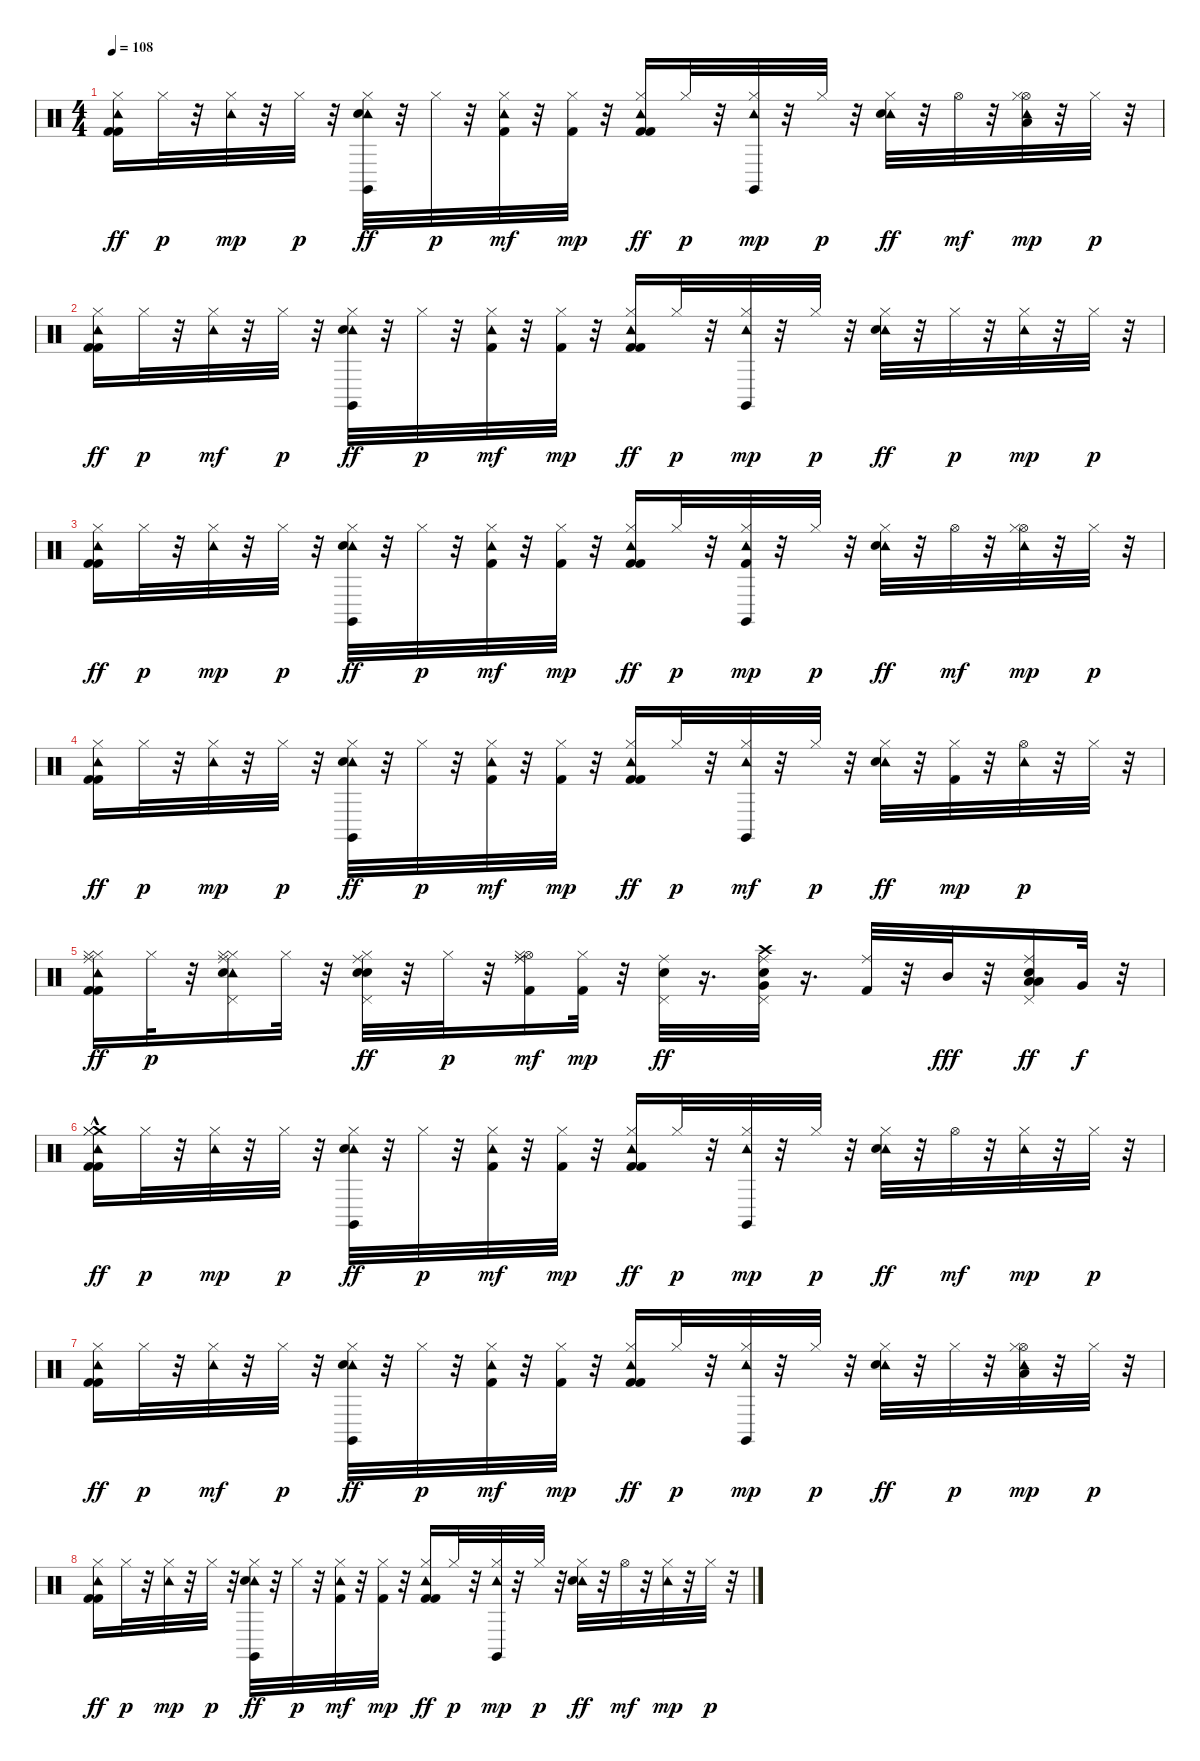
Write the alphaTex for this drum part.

\track "" {instrument percussion}
\staff {score}
\articulation defaults
\ts (4 4)
\tempo 108
\clef neutral
\ks c
("Tambourine (hit)" "Kick (hit) 2" "Hi-Hat (closed)" "Kick (hit) 2").16{dy ff} "Hi-Hat (closed)".32{dy p} r.32 ("Hi-Hat (closed)" "Tambourine (hit)").32{dy mp} r.32 "Hi-Hat (closed)".32{dy p} r.32 ("Tambourine (hit)" "Claves (hit)" "Hi-Hat (closed)" "Snare (hit) 2").32{dy ff} r.32 "Hi-Hat (closed)".32{dy p} r.32 ("Kick (hit) 2" "Tambourine (hit)" "Hi-Hat (closed)").32{dy mf} r.32 ("Hi-Hat (closed)" "Kick (hit) 2").32{dy mp} r.32 ("Kick (hit) 2" "Tambourine (hit)" "Hi-Hat (closed)" "Kick (hit) 2").16{dy ff} "Hi-Hat (closed)".32{dy p} r.32 ("Tambourine (hit)" "Claves (hit)" "Hi-Hat (closed)").32{dy mp} r.32 "Hi-Hat (closed)".32{dy p} r.32 ("Tambourine (hit)" "Hi-Hat (closed)" "Snare (hit) 2").32{dy ff} r.32 "Hi-Hat (open)".32{dy mf} r.32 ("Tambourine (hit)" "Hi-Hat (open)" "Low Tom (hit)" "Hi-Hat (closed)").32{dy mp} r.32 "Hi-Hat (closed)".32{dy p} r.32 |
("Kick (hit) 2" "Tambourine (hit)" "Hi-Hat (closed)" "Kick (hit) 2").16{dy ff} "Hi-Hat (closed)".32{dy p} r.32 ("Tambourine (hit)" "Hi-Hat (closed)").32{dy mf} r.32 "Hi-Hat (closed)".32{dy p} r.32 ("Tambourine (hit)" "Claves (hit)" "Hi-Hat (closed)" "Snare (hit) 2").32{dy ff} r.32 "Hi-Hat (closed)".32{dy p} r.32 ("Tambourine (hit)" "Kick (hit) 2" "Hi-Hat (closed)").32{dy mf} r.32 ("Hi-Hat (closed)" "Kick (hit) 2").32{dy mp} r.32 ("Tambourine (hit)" "Kick (hit) 2" "Hi-Hat (closed)" "Kick (hit) 2").16{dy ff} "Hi-Hat (closed)".32{dy p} r.32 ("Tambourine (hit)" "Claves (hit)" "Hi-Hat (closed)").32{dy mp} r.32 "Hi-Hat (closed)".32{dy p} r.32 ("Tambourine (hit)" "Hi-Hat (closed)" "Snare (hit) 2").32{dy ff} r.32 "Hi-Hat (closed)".32{dy p} r.32 ("Tambourine (hit)" "Hi-Hat (closed)").32{dy mp} r.32 "Hi-Hat (closed)".32{dy p} r.32 |
("Tambourine (hit)" "Kick (hit) 2" "Hi-Hat (closed)" "Kick (hit) 2").16{dy ff} "Hi-Hat (closed)".32{dy p} r.32 ("Hi-Hat (closed)" "Tambourine (hit)").32{dy mp} r.32 "Hi-Hat (closed)".32{dy p} r.32 ("Tambourine (hit)" "Claves (hit)" "Hi-Hat (closed)" "Snare (hit) 2").32{dy ff} r.32 "Hi-Hat (closed)".32{dy p} r.32 ("Kick (hit) 2" "Tambourine (hit)" "Hi-Hat (closed)").32{dy mf} r.32 ("Hi-Hat (closed)" "Kick (hit) 2").32{dy mp} r.32 ("Tambourine (hit)" "Kick (hit) 2" "Hi-Hat (closed)" "Kick (hit) 2").16{dy ff} "Hi-Hat (closed)".32{dy p} r.32 ("Tambourine (hit)" "Claves (hit)" "Kick (hit) 2" "Hi-Hat (closed)").32{dy mp} r.32 "Hi-Hat (closed)".32{dy p} r.32 ("Tambourine (hit)" "Hi-Hat (closed)" "Snare (hit) 2").32{dy ff} r.32 "Hi-Hat (open)".32{dy mf} r.32 ("Tambourine (hit)" "Hi-Hat (open)" "Hi-Hat (closed)").32{dy mp} r.32 "Hi-Hat (closed)".32{dy p} r.32 |
("Tambourine (hit)" "Kick (hit) 2" "Hi-Hat (closed)" "Kick (hit) 2").16{dy ff} "Hi-Hat (closed)".32{dy p} r.32 ("Tambourine (hit)" "Hi-Hat (closed)").32{dy mp} r.32 "Hi-Hat (closed)".32{dy p} r.32 ("Tambourine (hit)" "Claves (hit)" "Hi-Hat (closed)" "Snare (hit) 2").32{dy ff} r.32 "Hi-Hat (closed)".32{dy p} r.32 ("Kick (hit) 2" "Tambourine (hit)" "Hi-Hat (closed)").32{dy mf} r.32 ("Hi-Hat (closed)" "Kick (hit) 2").32{dy mp} r.32 ("Tambourine (hit)" "Kick (hit) 2" "Hi-Hat (closed)" "Kick (hit) 2").16{dy ff} "Hi-Hat (closed)".32{dy p} r.32 ("Tambourine (hit)" "Claves (hit)" "Hi-Hat (closed)").32{dy mf} r.32 "Hi-Hat (closed)".32{dy p} r.32 ("Tambourine (hit)" "Hi-Hat (closed)" "Snare (hit) 2").32{dy ff} r.32 ("Hi-Hat (closed)" "Kick (hit) 2").32{dy mp} r.32 ("Tambourine (hit)" "Hi-Hat (open)").32{dy p} r.32 "Hi-Hat (closed)".32 r.32 |
("Tambourine (hit)" "Kick (hit) 2" "Hi-Hat (closed)" "Ride (middle)" "Kick (hit) 2" "Hi-Hat (closed)").16{dy ff} "Hi-Hat (closed)".32{dy p} r.32 ("Hi-Hat (closed)" "Tambourine (hit)" "Hi-Hat (closed)" "Pedal Hi-Hat (hit)" "Ride (middle)" "Snare (hit) 2").16 "Hi-Hat (closed)".32 r.32 ("Electric Snare (hit)" "Pedal Hi-Hat (hit)" "Ride (middle)" "Hi-Hat (closed)" "Snare (hit) 2").32{dy ff} r.32 "Hi-Hat (closed)".32{dy p} r.32 ("Ride (middle)" "Hi-Hat (open)" "Ride (middle)" "Kick (hit) 2" "Hi-Hat (closed)").16{dy mf} ("Hi-Hat (closed)" "Kick (hit) 2").32{dy mp} r.32 ("Pedal Hi-Hat (hit)" "Ride (middle)" "Snare (hit) 2").32{dy ff} r.16{d} ("Very Low Tom (hit)" "Crash high (hit)" "Pedal Hi-Hat (hit)" "Ride (middle)" "Snare (hit) 2").32 r.16{d} ("Ride (middle)" "Kick (hit) 2").32 r.32 "Mid Tom (hit)".32{dy fff} r.32 ("Low Tom (hit)" "Pedal Hi-Hat (hit)" "Low Tom (hit)" "Ride (middle)" "Snare (hit) 2").16{dy ff} "Very Low Tom (hit)".32{dy f} r.32 |
("Kick (hit) 2" "Crash medium (hit)"{hac} "Hi-Hat (closed)" "Tambourine (hit)" "Hi-Hat (closed)" "Kick (hit) 2").16{dy ff} "Hi-Hat (closed)".32{dy p} r.32 ("Hi-Hat (closed)" "Tambourine (hit)").32{dy mp} r.32 "Hi-Hat (closed)".32{dy p} r.32 ("Tambourine (hit)" "Claves (hit)" "Hi-Hat (closed)" "Snare (hit) 2").32{dy ff} r.32 "Hi-Hat (closed)".32{dy p} r.32 ("Tambourine (hit)" "Kick (hit) 2" "Hi-Hat (closed)").32{dy mf} r.32 ("Hi-Hat (closed)" "Kick (hit) 2").32{dy mp} r.32 ("Kick (hit) 2" "Tambourine (hit)" "Hi-Hat (closed)" "Kick (hit) 2").16{dy ff} "Hi-Hat (closed)".32{dy p} r.32 ("Tambourine (hit)" "Claves (hit)" "Hi-Hat (closed)").32{dy mp} r.32 "Hi-Hat (closed)".32{dy p} r.32 ("Tambourine (hit)" "Hi-Hat (closed)" "Snare (hit) 2").32{dy ff} r.32 "Hi-Hat (open)".32{dy mf} r.32 ("Tambourine (hit)" "Hi-Hat (closed)").32{dy mp} r.32 "Hi-Hat (closed)".32{dy p} r.32 |
("Tambourine (hit)" "Kick (hit) 2" "Hi-Hat (closed)" "Kick (hit) 2").16{dy ff} "Hi-Hat (closed)".32{dy p} r.32 ("Tambourine (hit)" "Hi-Hat (closed)").32{dy mf} r.32 "Hi-Hat (closed)".32{dy p} r.32 ("Tambourine (hit)" "Claves (hit)" "Hi-Hat (closed)" "Snare (hit) 2").32{dy ff} r.32 "Hi-Hat (closed)".32{dy p} r.32 ("Kick (hit) 2" "Tambourine (hit)" "Hi-Hat (closed)").32{dy mf} r.32 ("Hi-Hat (closed)" "Kick (hit) 2").32{dy mp} r.32 ("Tambourine (hit)" "Kick (hit) 2" "Hi-Hat (closed)" "Kick (hit) 2").16{dy ff} "Hi-Hat (closed)".32{dy p} r.32 ("Tambourine (hit)" "Claves (hit)" "Hi-Hat (closed)").32{dy mp} r.32 "Hi-Hat (closed)".32{dy p} r.32 ("Tambourine (hit)" "Hi-Hat (closed)" "Snare (hit) 2").32{dy ff} r.32 "Hi-Hat (closed)".32{dy p} r.32 ("Tambourine (hit)" "Hi-Hat (open)" "Low Tom (hit)" "Hi-Hat (closed)").32{dy mp} r.32 "Hi-Hat (closed)".32{dy p} r.32 |
("Kick (hit) 2" "Tambourine (hit)" "Hi-Hat (closed)" "Kick (hit) 2").16{dy ff} "Hi-Hat (closed)".32{dy p} r.32 ("Hi-Hat (closed)" "Tambourine (hit)").32{dy mp} r.32 "Hi-Hat (closed)".32{dy p} r.32 ("Tambourine (hit)" "Claves (hit)" "Hi-Hat (closed)" "Snare (hit) 2").32{dy ff} r.32 "Hi-Hat (closed)".32{dy p} r.32 ("Tambourine (hit)" "Kick (hit) 2" "Hi-Hat (closed)").32{dy mf} r.32 ("Hi-Hat (closed)" "Kick (hit) 2").32{dy mp} r.32 ("Kick (hit) 2" "Tambourine (hit)" "Hi-Hat (closed)" "Kick (hit) 2").16{dy ff} "Hi-Hat (closed)".32{dy p} r.32 ("Tambourine (hit)" "Claves (hit)" "Hi-Hat (closed)").32{dy mp} r.32 "Hi-Hat (closed)".32{dy p} r.32 ("Tambourine (hit)" "Hi-Hat (closed)" "Snare (hit) 2").32{dy ff} r.32 "Hi-Hat (open)".32{dy mf} r.32 ("Tambourine (hit)" "Hi-Hat (closed)").32{dy mp} r.32 "Hi-Hat (closed)".32{dy p} r.32
